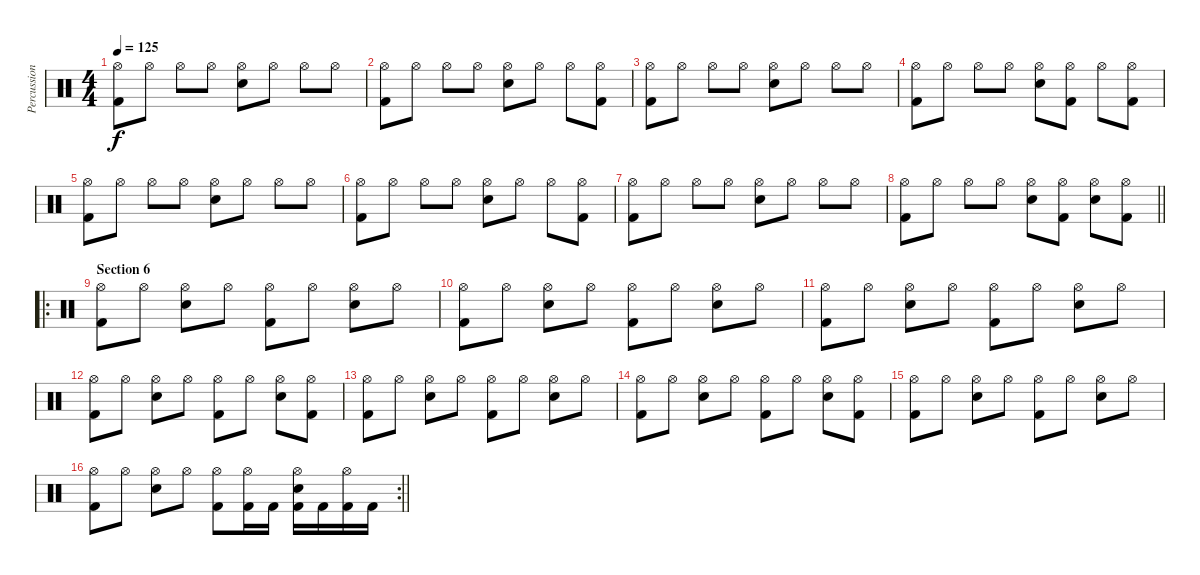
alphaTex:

\track ("Percussions" "Percussion") {instrument percussion}
\staff {score}
\articulation defaults
\ts (4 4)
\tempo 125
\clef neutral
\ks c
("Hi-Hat (open)" "Kick (hit) 2").8{dy f} "Hi-Hat (open)".8 "Hi-Hat (open)".8 "Hi-Hat (open)".8 ("Hi-Hat (open)" "Electric Snare (hit)").8 "Hi-Hat (open)".8 "Hi-Hat (open)".8 "Hi-Hat (open)".8 |
("Hi-Hat (open)" "Kick (hit) 2").8 "Hi-Hat (open)".8 "Hi-Hat (open)".8 "Hi-Hat (open)".8 ("Hi-Hat (open)" "Electric Snare (hit)").8 "Hi-Hat (open)".8 "Hi-Hat (open)".8 ("Hi-Hat (open)" "Kick (hit) 2").8 |
("Hi-Hat (open)" "Kick (hit) 2").8 "Hi-Hat (open)".8 "Hi-Hat (open)".8 "Hi-Hat (open)".8 ("Hi-Hat (open)" "Electric Snare (hit)").8 "Hi-Hat (open)".8 "Hi-Hat (open)".8 "Hi-Hat (open)".8 |
("Hi-Hat (open)" "Kick (hit) 2").8 "Hi-Hat (open)".8 "Hi-Hat (open)".8 "Hi-Hat (open)".8 ("Hi-Hat (open)" "Electric Snare (hit)").8 ("Hi-Hat (open)" "Kick (hit) 2").8 "Hi-Hat (open)".8 ("Hi-Hat (open)" "Kick (hit) 2").8 |
("Hi-Hat (open)" "Kick (hit) 2").8 "Hi-Hat (open)".8 "Hi-Hat (open)".8 "Hi-Hat (open)".8 ("Hi-Hat (open)" "Electric Snare (hit)").8 "Hi-Hat (open)".8 "Hi-Hat (open)".8 "Hi-Hat (open)".8 |
("Hi-Hat (open)" "Kick (hit) 2").8 "Hi-Hat (open)".8 "Hi-Hat (open)".8 "Hi-Hat (open)".8 ("Hi-Hat (open)" "Electric Snare (hit)").8 "Hi-Hat (open)".8 "Hi-Hat (open)".8 ("Hi-Hat (open)" "Kick (hit) 2").8 |
("Hi-Hat (open)" "Kick (hit) 2").8 "Hi-Hat (open)".8 "Hi-Hat (open)".8 "Hi-Hat (open)".8 ("Hi-Hat (open)" "Electric Snare (hit)").8 "Hi-Hat (open)".8 "Hi-Hat (open)".8 "Hi-Hat (open)".8 |
\barLineRight lightlight
("Hi-Hat (open)" "Kick (hit) 2").8 "Hi-Hat (open)".8 "Hi-Hat (open)".8 "Hi-Hat (open)".8 ("Hi-Hat (open)" "Electric Snare (hit)").8 ("Hi-Hat (open)" "Kick (hit) 2").8 ("Hi-Hat (open)" "Electric Snare (hit)").8 ("Hi-Hat (open)" "Kick (hit) 2").8 |
\ro
\section ("" "Section 6")
("Hi-Hat (open)" "Kick (hit) 2").8 "Hi-Hat (open)".8 ("Hi-Hat (open)" "Electric Snare (hit)").8 "Hi-Hat (open)".8 ("Hi-Hat (open)" "Kick (hit) 2").8 "Hi-Hat (open)".8 ("Hi-Hat (open)" "Electric Snare (hit)").8 "Hi-Hat (open)".8 |
("Hi-Hat (open)" "Kick (hit) 2").8 "Hi-Hat (open)".8 ("Hi-Hat (open)" "Electric Snare (hit)").8 "Hi-Hat (open)".8 ("Hi-Hat (open)" "Kick (hit) 2").8 "Hi-Hat (open)".8 ("Hi-Hat (open)" "Electric Snare (hit)").8 "Hi-Hat (open)".8 |
("Hi-Hat (open)" "Kick (hit) 2").8 "Hi-Hat (open)".8 ("Hi-Hat (open)" "Electric Snare (hit)").8 "Hi-Hat (open)".8 ("Hi-Hat (open)" "Kick (hit) 2").8 "Hi-Hat (open)".8 ("Hi-Hat (open)" "Electric Snare (hit)").8 "Hi-Hat (open)".8 |
("Hi-Hat (open)" "Kick (hit) 2").8 "Hi-Hat (open)".8 ("Hi-Hat (open)" "Electric Snare (hit)").8 "Hi-Hat (open)".8 ("Hi-Hat (open)" "Kick (hit) 2").8 "Hi-Hat (open)".8 ("Hi-Hat (open)" "Electric Snare (hit)").8 ("Hi-Hat (open)" "Kick (hit) 2").8 |
("Hi-Hat (open)" "Kick (hit) 2").8 "Hi-Hat (open)".8 ("Hi-Hat (open)" "Electric Snare (hit)").8 "Hi-Hat (open)".8 ("Hi-Hat (open)" "Kick (hit) 2").8 "Hi-Hat (open)".8 ("Hi-Hat (open)" "Electric Snare (hit)").8 "Hi-Hat (open)".8 |
("Hi-Hat (open)" "Kick (hit) 2").8 "Hi-Hat (open)".8 ("Hi-Hat (open)" "Electric Snare (hit)").8 "Hi-Hat (open)".8 ("Hi-Hat (open)" "Kick (hit) 2").8 "Hi-Hat (open)".8 ("Hi-Hat (open)" "Electric Snare (hit)").8 ("Hi-Hat (open)" "Kick (hit) 2").8 |
("Hi-Hat (open)" "Kick (hit) 2").8 "Hi-Hat (open)".8 ("Hi-Hat (open)" "Electric Snare (hit)").8 "Hi-Hat (open)".8 ("Hi-Hat (open)" "Kick (hit) 2").8 "Hi-Hat (open)".8 ("Hi-Hat (open)" "Electric Snare (hit)").8 "Hi-Hat (open)".8 |
\rc 2
\barLineRight lightlight
("Hi-Hat (open)" "Kick (hit) 2").8 "Hi-Hat (open)".8 ("Hi-Hat (open)" "Electric Snare (hit)").8 "Hi-Hat (open)".8 ("Hi-Hat (open)" "Kick (hit) 2").8 ("Hi-Hat (open)" "Kick (hit) 2").16 "Kick (hit) 2".16 ("Hi-Hat (open)" "Electric Snare (hit)" "Kick (hit) 2").16 "Kick (hit) 2".16 ("Hi-Hat (open)" "Kick (hit) 2").16 "Kick (hit) 2".16
